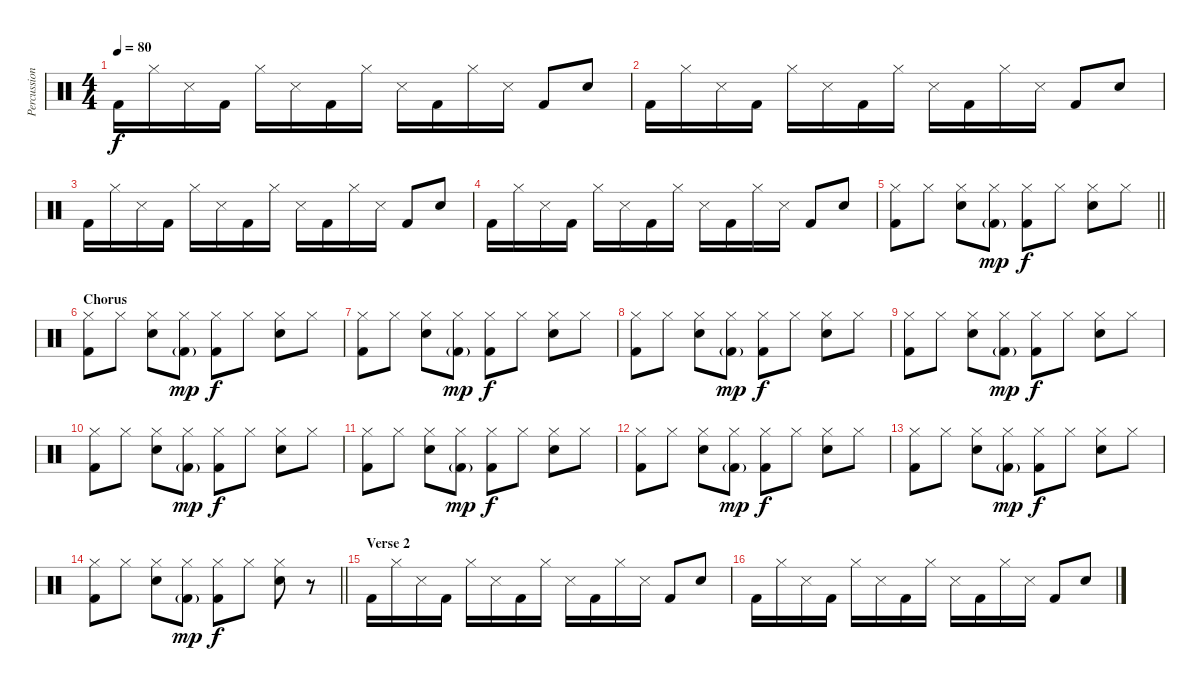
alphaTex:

\track ("Percussion" "Percussion") {instrument percussion}
\staff {score}
\articulation defaults
\ts (4 4)
\tempo 80
\clef neutral
\ks c "Kick (hit) 2".16{dy f} "Hi-Hat (closed)".16 "Snare (side stick) 3".16 "Kick (hit) 2".16 "Hi-Hat (closed)".16 "Snare (side stick) 3".16 "Kick (hit) 2".16 "Hi-Hat (closed)".16 "Snare (side stick) 3".16 "Kick (hit) 2".16 "Hi-Hat (closed)".16 "Snare (side stick) 3".16 "Kick (hit) 2".8 "Snare (hit) 2".8
|
"Kick (hit) 2".16 "Hi-Hat (closed)".16 "Snare (side stick) 3".16 "Kick (hit) 2".16 "Hi-Hat (closed)".16 "Snare (side stick) 3".16 "Kick (hit) 2".16 "Hi-Hat (closed)".16 "Snare (side stick) 3".16 "Kick (hit) 2".16 "Hi-Hat (closed)".16 "Snare (side stick) 3".16 "Kick (hit) 2".8 "Snare (hit) 2".8 |
"Kick (hit) 2".16 "Hi-Hat (closed)".16 "Snare (side stick) 3".16 "Kick (hit) 2".16 "Hi-Hat (closed)".16 "Snare (side stick) 3".16 "Kick (hit) 2".16 "Hi-Hat (closed)".16 "Snare (side stick) 3".16 "Kick (hit) 2".16 "Hi-Hat (closed)".16 "Snare (side stick) 3".16 "Kick (hit) 2".8 "Snare (hit) 2".8 |
"Kick (hit) 2".16 "Hi-Hat (closed)".16 "Snare (side stick) 3".16 "Kick (hit) 2".16 "Hi-Hat (closed)".16 "Snare (side stick) 3".16 "Kick (hit) 2".16 "Hi-Hat (closed)".16 "Snare (side stick) 3".16 "Kick (hit) 2".16 "Hi-Hat (closed)".16 "Snare (side stick) 3".16 "Kick (hit) 2".8 "Snare (hit) 2".8 |
\barLineRight lightlight
("Hi-Hat (closed)" "Kick (hit) 2").8 "Hi-Hat (closed)".8 ("Hi-Hat (closed)" "Snare (hit) 2").8 ("Hi-Hat (closed)" "Kick (hit) 2"{g}).8{dy mp} ("Hi-Hat (closed)" "Kick (hit) 2").8{dy f} "Hi-Hat (closed)".8 ("Hi-Hat (closed)" "Snare (hit) 2").8 "Hi-Hat (closed)".8 |
\section ("" "Chorus")
("Hi-Hat (closed)" "Kick (hit) 2").8 "Hi-Hat (closed)".8 ("Hi-Hat (closed)" "Snare (hit) 2").8 ("Hi-Hat (closed)" "Kick (hit) 2"{g}).8{dy mp} ("Hi-Hat (closed)" "Kick (hit) 2").8{dy f} "Hi-Hat (closed)".8 ("Hi-Hat (closed)" "Snare (hit) 2").8 "Hi-Hat (closed)".8 |
("Hi-Hat (closed)" "Kick (hit) 2").8 "Hi-Hat (closed)".8 ("Hi-Hat (closed)" "Snare (hit) 2").8 ("Hi-Hat (closed)" "Kick (hit) 2"{g}).8{dy mp} ("Hi-Hat (closed)" "Kick (hit) 2").8{dy f} "Hi-Hat (closed)".8 ("Hi-Hat (closed)" "Snare (hit) 2").8 "Hi-Hat (closed)".8 |
("Hi-Hat (closed)" "Kick (hit) 2").8 "Hi-Hat (closed)".8 ("Hi-Hat (closed)" "Snare (hit) 2").8 ("Hi-Hat (closed)" "Kick (hit) 2"{g}).8{dy mp} ("Hi-Hat (closed)" "Kick (hit) 2").8{dy f} "Hi-Hat (closed)".8 ("Hi-Hat (closed)" "Snare (hit) 2").8 "Hi-Hat (closed)".8 |
("Hi-Hat (closed)" "Kick (hit) 2").8 "Hi-Hat (closed)".8 ("Hi-Hat (closed)" "Snare (hit) 2").8 ("Hi-Hat (closed)" "Kick (hit) 2"{g}).8{dy mp} ("Hi-Hat (closed)" "Kick (hit) 2").8{dy f} "Hi-Hat (closed)".8 ("Hi-Hat (closed)" "Snare (hit) 2").8 "Hi-Hat (closed)".8 |
("Hi-Hat (closed)" "Kick (hit) 2").8 "Hi-Hat (closed)".8 ("Hi-Hat (closed)" "Snare (hit) 2").8 ("Hi-Hat (closed)" "Kick (hit) 2"{g}).8{dy mp} ("Hi-Hat (closed)" "Kick (hit) 2").8{dy f} "Hi-Hat (closed)".8 ("Hi-Hat (closed)" "Snare (hit) 2").8 "Hi-Hat (closed)".8 |
("Hi-Hat (closed)" "Kick (hit) 2").8 "Hi-Hat (closed)".8 ("Hi-Hat (closed)" "Snare (hit) 2").8 ("Hi-Hat (closed)" "Kick (hit) 2"{g}).8{dy mp} ("Hi-Hat (closed)" "Kick (hit) 2").8{dy f} "Hi-Hat (closed)".8 ("Hi-Hat (closed)" "Snare (hit) 2").8 "Hi-Hat (closed)".8 |
("Hi-Hat (closed)" "Kick (hit) 2").8 "Hi-Hat (closed)".8 ("Hi-Hat (closed)" "Snare (hit) 2").8 ("Hi-Hat (closed)" "Kick (hit) 2"{g}).8{dy mp} ("Hi-Hat (closed)" "Kick (hit) 2").8{dy f} "Hi-Hat (closed)".8 ("Hi-Hat (closed)" "Snare (hit) 2").8 "Hi-Hat (closed)".8 |
("Hi-Hat (closed)" "Kick (hit) 2").8 "Hi-Hat (closed)".8 ("Hi-Hat (closed)" "Snare (hit) 2").8 ("Hi-Hat (closed)" "Kick (hit) 2"{g}).8{dy mp} ("Hi-Hat (closed)" "Kick (hit) 2").8{dy f} "Hi-Hat (closed)".8 ("Hi-Hat (closed)" "Snare (hit) 2").8 "Hi-Hat (closed)".8 |
\barLineRight lightlight
("Hi-Hat (closed)" "Kick (hit) 2").8 "Hi-Hat (closed)".8 ("Hi-Hat (closed)" "Snare (hit) 2").8 ("Hi-Hat (closed)" "Kick (hit) 2"{g}).8{dy mp} ("Hi-Hat (closed)" "Kick (hit) 2").8{dy f} "Hi-Hat (closed)".8 ("Hi-Hat (closed)" "Snare (hit) 2").8 r.8 |
\section ("" "Verse 2")
"Kick (hit) 2".16 "Hi-Hat (closed)".16 "Snare (side stick) 3".16 "Kick (hit) 2".16 "Hi-Hat (closed)".16 "Snare (side stick) 3".16 "Kick (hit) 2".16 "Hi-Hat (closed)".16 "Snare (side stick) 3".16 "Kick (hit) 2".16 "Hi-Hat (closed)".16 "Snare (side stick) 3".16 "Kick (hit) 2".8 "Snare (hit) 2".8 |
"Kick (hit) 2".16 "Hi-Hat (closed)".16 "Snare (side stick) 3".16 "Kick (hit) 2".16 "Hi-Hat (closed)".16 "Snare (side stick) 3".16 "Kick (hit) 2".16 "Hi-Hat (closed)".16 "Snare (side stick) 3".16 "Kick (hit) 2".16 "Hi-Hat (closed)".16 "Snare (side stick) 3".16 "Kick (hit) 2".8 "Snare (hit) 2".8
